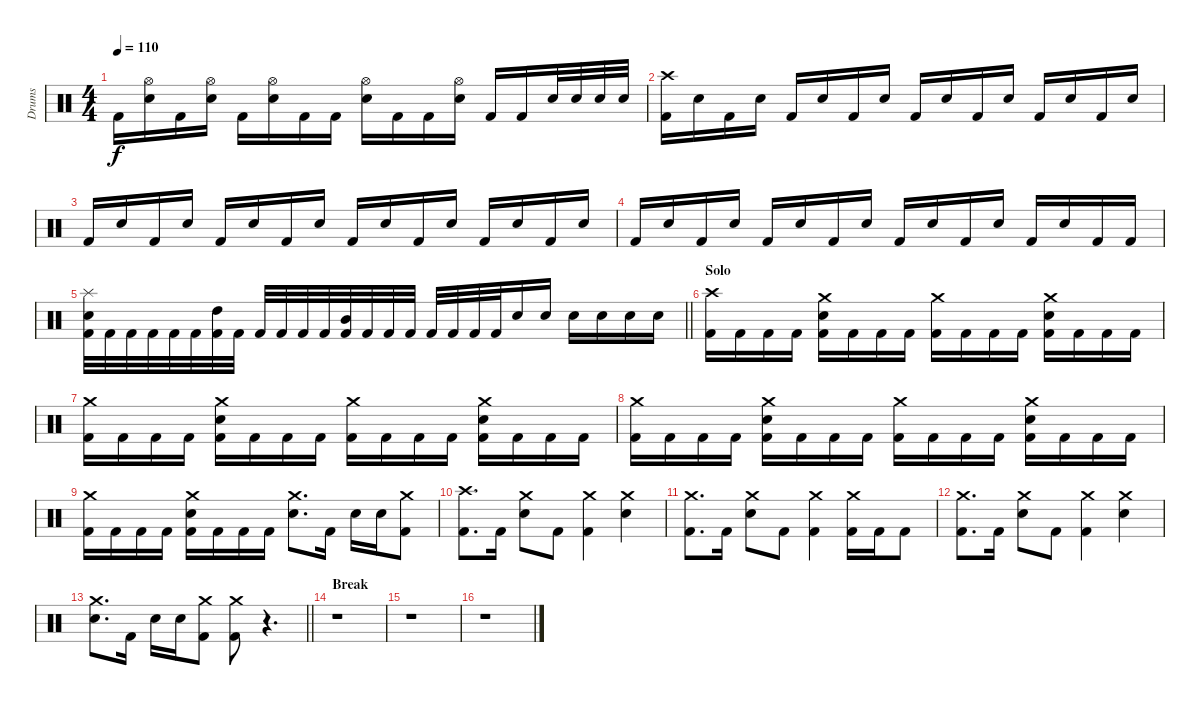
\track ("Drums" "Drums") {instrument percussion}
\staff {score}
\articulation defaults
\ts (4 4)
\tempo 110
\clef neutral
\ks c "Kick (hit) 2".16{dy f}
("Hi-Hat (open)" "Snare (hit) 2").16 "Kick (hit) 2".16 ("Hi-Hat (open)" "Snare (hit) 2").16 "Kick (hit) 2".16 ("Hi-Hat (open)" "Snare (hit) 2").16 "Kick (hit) 2".16 "Kick (hit) 2".16 ("Hi-Hat (open)" "Snare (hit) 2").16 "Kick (hit) 2".16 "Kick (hit) 2".16 ("Hi-Hat (open)" "Snare (hit) 2").16 "Kick (hit) 2".16 "Kick (hit) 2".16 "Snare (hit) 2".32 "Snare (hit) 2".32 "Snare (hit) 2".32 "Snare (hit) 2".32 |
("Crash high (hit)" "Kick (hit) 2").16 "Snare (hit) 2".16 "Kick (hit) 2".16 "Snare (hit) 2".16 "Kick (hit) 2".16 "Snare (hit) 2".16 "Kick (hit) 2".16 "Snare (hit) 2".16 "Kick (hit) 2".16 "Snare (hit) 2".16 "Kick (hit) 2".16 "Snare (hit) 2".16 "Kick (hit) 2".16 "Snare (hit) 2".16 "Kick (hit) 2".16 "Snare (hit) 2".16 |
"Kick (hit) 2".16 "Snare (hit) 2".16 "Kick (hit) 2".16 "Snare (hit) 2".16 "Kick (hit) 2".16 "Snare (hit) 2".16 "Kick (hit) 2".16 "Snare (hit) 2".16 "Kick (hit) 2".16 "Snare (hit) 2".16 "Kick (hit) 2".16 "Snare (hit) 2".16 "Kick (hit) 2".16 "Snare (hit) 2".16 "Kick (hit) 2".16 "Snare (hit) 2".16 |
"Kick (hit) 2".16 "Snare (hit) 2".16 "Kick (hit) 2".16 "Snare (hit) 2".16 "Kick (hit) 2".16 "Snare (hit) 2".16 "Kick (hit) 2".16 "Snare (hit) 2".16 "Kick (hit) 2".16 "Snare (hit) 2".16 "Kick (hit) 2".16 "Snare (hit) 2".16 "Kick (hit) 2".16 "Snare (hit) 2".16 "Kick (hit) 2".16 "Kick (hit) 2".16 |
\barLineRight lightlight
("Splash (hit)" "Snare (hit) 2" "Kick (hit) 2").32 "Kick (hit) 2".32 "Kick (hit) 2".32 "Kick (hit) 2".32 "Kick (hit) 2".32 "Kick (hit) 2".32 ("High Tom (hit)" "Kick (hit) 2").32 "Kick (hit) 2".32 "Kick (hit) 2".32 "Kick (hit) 2".32 "Kick (hit) 2".32 "Kick (hit) 2".32 ("Mid Tom (hit)" "Kick (hit) 2").32 "Kick (hit) 2".32 "Kick (hit) 2".32 "Kick (hit) 2".32 "Kick (hit) 2".32 "Kick (hit) 2".32 "Kick (hit) 2".32 "Kick (hit) 2".32 "Snare (hit) 2".16 "Snare (hit) 2".16 "Snare (hit) 2".16 "Snare (hit) 2".16 "Snare (hit) 2".16 "Snare (hit) 2".16 |
\section ("" "Solo")
("Crash high (hit)" "Kick (hit) 2").16 "Kick (hit) 2".16 "Kick (hit) 2".16 "Kick (hit) 2".16 ("Crash medium (hit)" "Snare (hit) 2" "Kick (hit) 2").16 "Kick (hit) 2".16 "Kick (hit) 2".16 "Kick (hit) 2".16 ("Crash medium (hit)" "Kick (hit) 2").16 "Kick (hit) 2".16 "Kick (hit) 2".16 "Kick (hit) 2".16 ("Crash medium (hit)" "Snare (hit) 2" "Kick (hit) 2").16 "Kick (hit) 2".16 "Kick (hit) 2".16 "Kick (hit) 2".16 |
("Crash medium (hit)" "Kick (hit) 2").16 "Kick (hit) 2".16 "Kick (hit) 2".16 "Kick (hit) 2".16 ("Crash medium (hit)" "Snare (hit) 2" "Kick (hit) 2").16 "Kick (hit) 2".16 "Kick (hit) 2".16 "Kick (hit) 2".16 ("Crash medium (hit)" "Kick (hit) 2").16 "Kick (hit) 2".16 "Kick (hit) 2".16 "Kick (hit) 2".16 ("Crash medium (hit)" "Snare (hit) 2" "Kick (hit) 2").16 "Kick (hit) 2".16 "Kick (hit) 2".16 "Kick (hit) 2".16 |
("Crash medium (hit)" "Kick (hit) 2").16 "Kick (hit) 2".16 "Kick (hit) 2".16 "Kick (hit) 2".16 ("Crash medium (hit)" "Snare (hit) 2" "Kick (hit) 2").16 "Kick (hit) 2".16 "Kick (hit) 2".16 "Kick (hit) 2".16 ("Crash medium (hit)" "Kick (hit) 2").16 "Kick (hit) 2".16 "Kick (hit) 2".16 "Kick (hit) 2".16 ("Crash medium (hit)" "Snare (hit) 2" "Kick (hit) 2").16 "Kick (hit) 2".16 "Kick (hit) 2".16 "Kick (hit) 2".16 |
("Crash medium (hit)" "Kick (hit) 2").16 "Kick (hit) 2".16 "Kick (hit) 2".16 "Kick (hit) 2".16 ("Crash medium (hit)" "Snare (hit) 2" "Kick (hit) 2").16 "Kick (hit) 2".16 "Kick (hit) 2".16 "Kick (hit) 2".16 ("Crash medium (hit)" "Snare (hit) 2").8{d} "Kick (hit) 2".16 "Snare (hit) 2".16 "Snare (hit) 2".16 ("Crash medium (hit)" "Kick (hit) 2").8 |
("Crash high (hit)" "Kick (hit) 2").8{d} "Kick (hit) 2".16 ("Crash medium (hit)" "Snare (hit) 2").8 "Kick (hit) 2".8 ("Crash medium (hit)" "Kick (hit) 2").4 ("Crash medium (hit)" "Snare (hit) 2").4 |
("Crash medium (hit)" "Kick (hit) 2").8{d} "Kick (hit) 2".16 ("Crash medium (hit)" "Snare (hit) 2").8 "Kick (hit) 2".8 ("Crash medium (hit)" "Kick (hit) 2").4 ("Crash medium (hit)" "Kick (hit) 2").16 "Kick (hit) 2".16 "Kick (hit) 2".8 |
("Crash medium (hit)" "Kick (hit) 2").8{d} "Kick (hit) 2".16 ("Crash medium (hit)" "Snare (hit) 2").8 "Kick (hit) 2".8 ("Crash medium (hit)" "Kick (hit) 2").4 ("Crash medium (hit)" "Snare (hit) 2").4 |
\barLineRight lightlight
("Crash medium (hit)" "Snare (hit) 2").8{d} "Kick (hit) 2".16 "Snare (hit) 2".16 "Snare (hit) 2".16 ("Crash medium (hit)" "Kick (hit) 2").8 ("Crash medium (hit)" "Kick (hit) 2").8 r.4{d} |
\section ("" "Break")
r.1 |
r.1 |
r.1
